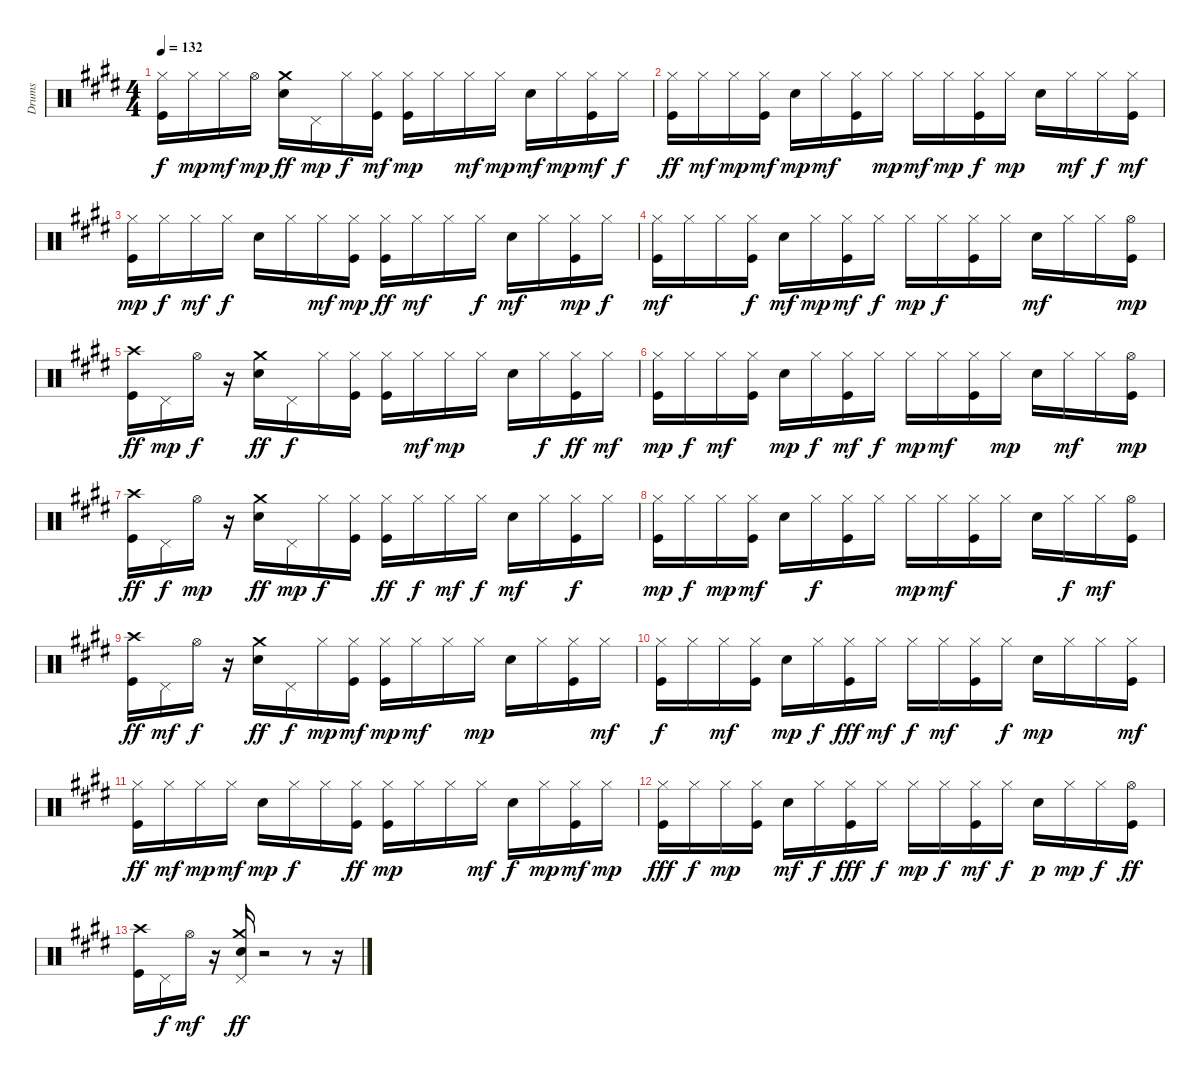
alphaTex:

\track ("Drums" "Drums") {instrument percussion}
\staff {score}
\articulation defaults
\ts (4 4)
\tempo 132
\clef neutral
\ks e
("Kick (hit)" "Hi-Hat (closed)").16{dy f} "Hi-Hat (closed)".16{dy mp} "Hi-Hat (closed)".16{dy mf} "Hi-Hat (open)".16{dy mp} ("Snare (hit) 2" "Crash medium (hit)").16{dy ff} "Pedal Hi-Hat (hit)".16{dy mp} "Hi-Hat (closed)".16{dy f} ("Kick (hit)" "Hi-Hat (closed)").16{dy mf} ("Kick (hit)" "Hi-Hat (closed)").16{dy mp} "Hi-Hat (closed)".16 "Hi-Hat (closed)".16{dy mf} "Hi-Hat (closed)".16{dy mp} "Snare (hit) 2".16{dy mf} "Hi-Hat (closed)".16{dy mp} ("Kick (hit)" "Hi-Hat (closed)").16{dy mf} "Hi-Hat (closed)".16{dy f} |
("Kick (hit)" "Hi-Hat (closed)").16{dy ff} "Hi-Hat (closed)".16{dy mf} "Hi-Hat (closed)".16{dy mp} ("Kick (hit)" "Hi-Hat (closed)").16{dy mf} "Snare (hit) 2".16{dy mp} "Hi-Hat (closed)".16{dy mf} ("Kick (hit)" "Hi-Hat (closed)").16 "Hi-Hat (closed)".16{dy mp} "Hi-Hat (closed)".16{dy mf} "Hi-Hat (closed)".16{dy mp} ("Kick (hit)" "Hi-Hat (closed)").16{dy f} "Hi-Hat (closed)".16{dy mp} "Snare (hit) 2".16 "Hi-Hat (closed)".16{dy mf} "Hi-Hat (closed)".16{dy f} ("Kick (hit)" "Hi-Hat (closed)").16{dy mf} |
("Kick (hit)" "Hi-Hat (closed)").16{dy mp} "Hi-Hat (closed)".16{dy f} "Hi-Hat (closed)".16{dy mf} "Hi-Hat (closed)".16{dy f} "Snare (hit) 2".16 "Hi-Hat (closed)".16 "Hi-Hat (closed)".16{dy mf} ("Kick (hit)" "Hi-Hat (closed)").16{dy mp} ("Kick (hit)" "Hi-Hat (closed)").16{dy ff} "Hi-Hat (closed)".16{dy mf} "Hi-Hat (closed)".16 "Hi-Hat (closed)".16{dy f} "Snare (hit) 2".16{dy mf} "Hi-Hat (closed)".16 ("Kick (hit)" "Hi-Hat (closed)").16{dy mp} "Hi-Hat (closed)".16{dy f} |
("Kick (hit)" "Hi-Hat (closed)").16{dy mf} "Hi-Hat (closed)".16 "Hi-Hat (closed)".16 ("Kick (hit)" "Hi-Hat (closed)").16{dy f} "Snare (hit) 2".16{dy mf} "Hi-Hat (closed)".16{dy mp} ("Kick (hit)" "Hi-Hat (closed)").16{dy mf} "Hi-Hat (closed)".16{dy f} "Hi-Hat (closed)".16{dy mp} "Hi-Hat (closed)".16{dy f} ("Kick (hit)" "Hi-Hat (closed)").16 "Hi-Hat (closed)".16 "Snare (hit) 2".16{dy mf} "Hi-Hat (closed)".16 "Hi-Hat (closed)".16 ("Kick (hit)" "Hi-Hat (open)").16{dy mp} |
("Kick (hit)" "Crash high (hit)").16{dy ff} "Pedal Hi-Hat (hit)".16{dy mp} "Hi-Hat (open)".16{dy f} r.16 ("Snare (hit) 2" "Crash medium (hit)").16{dy ff} "Pedal Hi-Hat (hit)".16{dy f} "Hi-Hat (closed)".16 ("Kick (hit)" "Hi-Hat (closed)").16 ("Kick (hit)" "Hi-Hat (closed)").16 "Hi-Hat (closed)".16{dy mf} "Hi-Hat (closed)".16{dy mp} "Hi-Hat (closed)".16 "Snare (hit) 2".16 "Hi-Hat (closed)".16{dy f} ("Kick (hit)" "Hi-Hat (closed)").16{dy ff} "Hi-Hat (closed)".16{dy mf} |
("Kick (hit)" "Hi-Hat (closed)").16{dy mp} "Hi-Hat (closed)".16{dy f} "Hi-Hat (closed)".16{dy mf} ("Kick (hit)" "Hi-Hat (closed)").16 "Snare (hit) 2".16{dy mp} "Hi-Hat (closed)".16{dy f} ("Kick (hit)" "Hi-Hat (closed)").16{dy mf} "Hi-Hat (closed)".16{dy f} "Hi-Hat (closed)".16{dy mp} "Hi-Hat (closed)".16{dy mf} ("Kick (hit)" "Hi-Hat (closed)").16 "Hi-Hat (closed)".16{dy mp} "Snare (hit) 2".16 "Hi-Hat (closed)".16{dy mf} "Hi-Hat (closed)".16 ("Kick (hit)" "Hi-Hat (open)").16{dy mp} |
("Kick (hit)" "Crash high (hit)").16{dy ff} "Pedal Hi-Hat (hit)".16{dy f} "Hi-Hat (open)".16{dy mp} r.16 ("Snare (hit) 2" "Crash medium (hit)").16{dy ff} "Pedal Hi-Hat (hit)".16{dy mp} "Hi-Hat (closed)".16{dy f} ("Kick (hit)" "Hi-Hat (closed)").16 ("Kick (hit)" "Hi-Hat (closed)").16{dy ff} "Hi-Hat (closed)".16{dy f} "Hi-Hat (closed)".16{dy mf} "Hi-Hat (closed)".16{dy f} "Snare (hit) 2".16{dy mf} "Hi-Hat (closed)".16 ("Kick (hit)" "Hi-Hat (closed)").16{dy f} "Hi-Hat (closed)".16 |
("Kick (hit)" "Hi-Hat (closed)").16{dy mp} "Hi-Hat (closed)".16{dy f} "Hi-Hat (closed)".16{dy mp} ("Kick (hit)" "Hi-Hat (closed)").16{dy mf} "Snare (hit) 2".16 "Hi-Hat (closed)".16{dy f} ("Kick (hit)" "Hi-Hat (closed)").16 "Hi-Hat (closed)".16 "Hi-Hat (closed)".16{dy mp} "Hi-Hat (closed)".16{dy mf} ("Kick (hit)" "Hi-Hat (closed)").16 "Hi-Hat (closed)".16 "Snare (hit) 2".16 "Hi-Hat (closed)".16{dy f} "Hi-Hat (closed)".16{dy mf} ("Kick (hit)" "Hi-Hat (open)").16 |
("Kick (hit)" "Crash high (hit)").16{dy ff} "Pedal Hi-Hat (hit)".16{dy mf} "Hi-Hat (open)".16{dy f} r.16 ("Snare (hit) 2" "Crash medium (hit)").16{dy ff} "Pedal Hi-Hat (hit)".16{dy f} "Hi-Hat (closed)".16{dy mp} ("Kick (hit)" "Hi-Hat (closed)").16{dy mf} ("Kick (hit)" "Hi-Hat (closed)").16{dy mp} "Hi-Hat (closed)".16{dy mf} "Hi-Hat (closed)".16 "Hi-Hat (closed)".16{dy mp} "Snare (hit) 2".16 "Hi-Hat (closed)".16 ("Kick (hit)" "Hi-Hat (closed)").16 "Hi-Hat (closed)".16{dy mf} |
("Kick (hit)" "Hi-Hat (closed)").16{dy f} "Hi-Hat (closed)".16 "Hi-Hat (closed)".16{dy mf} ("Kick (hit)" "Hi-Hat (closed)").16 "Snare (hit) 2".16{dy mp} "Hi-Hat (closed)".16{dy f} ("Kick (hit)" "Hi-Hat (closed)").16{dy fff} "Hi-Hat (closed)".16{dy mf} "Hi-Hat (closed)".16{dy f} "Hi-Hat (closed)".16{dy mf} ("Kick (hit)" "Hi-Hat (closed)").16 "Hi-Hat (closed)".16{dy f} "Snare (hit) 2".16{dy mp} "Hi-Hat (closed)".16 "Hi-Hat (closed)".16 ("Kick (hit)" "Hi-Hat (closed)").16{dy mf} |
("Kick (hit)" "Hi-Hat (closed)").16{dy ff} "Hi-Hat (closed)".16{dy mf} "Hi-Hat (closed)".16{dy mp} "Hi-Hat (closed)".16{dy mf} "Snare (hit) 2".16{dy mp} "Hi-Hat (closed)".16{dy f} "Hi-Hat (closed)".16 ("Kick (hit)" "Hi-Hat (closed)").16{dy ff} ("Kick (hit)" "Hi-Hat (closed)").16{dy mp} "Hi-Hat (closed)".16 "Hi-Hat (closed)".16 "Hi-Hat (closed)".16{dy mf} "Snare (hit) 2".16{dy f} "Hi-Hat (closed)".16{dy mp} ("Kick (hit)" "Hi-Hat (closed)").16{dy mf} "Hi-Hat (closed)".16{dy mp} |
("Kick (hit)" "Hi-Hat (closed)").16{dy fff} "Hi-Hat (closed)".16{dy f} "Hi-Hat (closed)".16{dy mp} ("Kick (hit)" "Hi-Hat (closed)").16 "Snare (hit) 2".16{dy mf} "Hi-Hat (closed)".16{dy f} ("Kick (hit)" "Hi-Hat (closed)").16{dy fff} "Hi-Hat (closed)".16{dy f} "Hi-Hat (closed)".16{dy mp} "Hi-Hat (closed)".16{dy f} ("Kick (hit)" "Hi-Hat (closed)").16{dy mf} "Hi-Hat (closed)".16{dy f} "Snare (hit) 2".16{dy p} "Hi-Hat (closed)".16{dy mp} "Hi-Hat (closed)".16{dy f} ("Kick (hit)" "Hi-Hat (open)").16{dy ff} |
("Kick (hit)" "Crash high (hit)").16 "Pedal Hi-Hat (hit)".16{dy f} "Hi-Hat (open)".16{dy mf} r.16 ("Snare (hit) 2" "Pedal Hi-Hat (hit)" "Crash medium (hit)").16{dy ff} r.2 r.8 r.16
